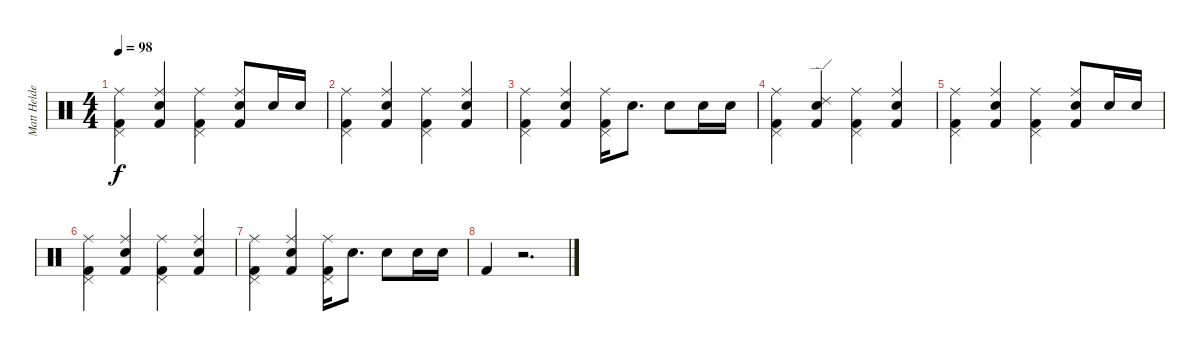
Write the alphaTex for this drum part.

\track ("Matt Helders" "Matt Helde") {instrument percussion}
\staff {score}
\articulation defaults
\ts (4 4)
\tempo 98
\clef neutral
\ks c
("Kick (hit) 2" "Pedal Hi-Hat (hit)" "Ride (middle)").4{dy f} ("Snare (hit) 2" "Kick (hit) 2" "Ride (middle)").4 ("Kick (hit) 2" "Pedal Hi-Hat (hit)" "Ride (middle)").4 ("Snare (hit) 2" "Kick (hit) 2" "Ride (middle)").8 "Snare (hit) 2".16 "Snare (hit) 2".16 |
("Kick (hit) 2" "Pedal Hi-Hat (hit)" "Ride (middle)").4 ("Snare (hit) 2" "Kick (hit) 2" "Ride (middle)").4 ("Kick (hit) 2" "Pedal Hi-Hat (hit)" "Ride (middle)").4 ("Snare (hit) 2" "Kick (hit) 2" "Ride (middle)").4 |
("Kick (hit) 2" "Pedal Hi-Hat (hit)" "Ride (middle)").4 ("Snare (hit) 2" "Kick (hit) 2" "Ride (middle)").4 ("Kick (hit) 2" "Pedal Hi-Hat (hit)" "Ride (middle)").16 "Snare (hit) 2".8{d} "Snare (hit) 2".8 "Snare (hit) 2".16 "Snare (hit) 2".16 |
("Kick (hit) 2" "Pedal Hi-Hat (hit)" "Ride (middle)").4 ("Snare (hit) 2" "Kick (hit) 2" "Ride (edge) 2").4 ("Kick (hit) 2" "Pedal Hi-Hat (hit)" "Ride (middle)").4 ("Snare (hit) 2" "Kick (hit) 2" "Ride (middle)").4 |
("Kick (hit) 2" "Pedal Hi-Hat (hit)" "Ride (middle)").4 ("Snare (hit) 2" "Kick (hit) 2" "Ride (middle)").4 ("Kick (hit) 2" "Pedal Hi-Hat (hit)" "Ride (middle)").4 ("Snare (hit) 2" "Kick (hit) 2" "Ride (middle)").8 "Snare (hit) 2".16 "Snare (hit) 2".16 |
("Kick (hit) 2" "Pedal Hi-Hat (hit)" "Ride (middle)").4 ("Snare (hit) 2" "Kick (hit) 2" "Ride (middle)").4 ("Kick (hit) 2" "Pedal Hi-Hat (hit)" "Ride (middle)").4 ("Snare (hit) 2" "Kick (hit) 2" "Ride (middle)").4 |
("Kick (hit) 2" "Pedal Hi-Hat (hit)" "Ride (middle)").4 ("Snare (hit) 2" "Kick (hit) 2" "Ride (middle)").4 ("Kick (hit) 2" "Pedal Hi-Hat (hit)" "Ride (middle)").16 "Snare (hit) 2".8{d} "Snare (hit) 2".8 "Snare (hit) 2".16 "Snare (hit) 2".16 |
"Kick (hit) 2".4 r.2{d}
